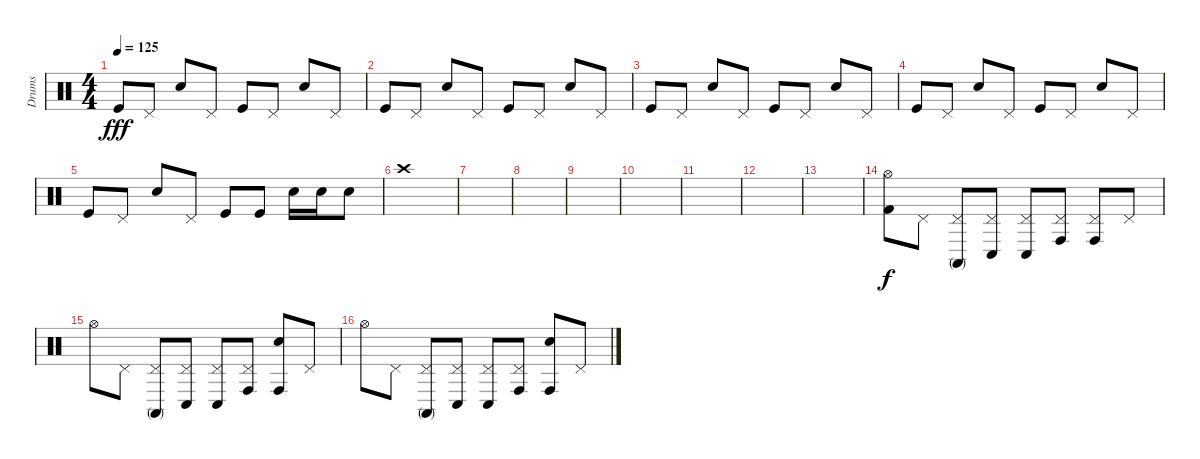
\track ("Drums" "Drums") {instrument percussion}
\staff {score}
\articulation defaults
\ts (4 4)
\tempo 125
\clef neutral
\ks c "Kick (hit)".8{dy fff} "Pedal Hi-Hat (hit)".8 "Electric Snare (hit)".8 "Pedal Hi-Hat (hit)".8 "Kick (hit)".8 "Pedal Hi-Hat (hit)".8 "Electric Snare (hit)".8 "Pedal Hi-Hat (hit)".8
|
"Kick (hit)".8 "Pedal Hi-Hat (hit)".8 "Electric Snare (hit)".8 "Pedal Hi-Hat (hit)".8 "Kick (hit)".8 "Pedal Hi-Hat (hit)".8 "Electric Snare (hit)".8 "Pedal Hi-Hat (hit)".8 |
"Kick (hit)".8 "Pedal Hi-Hat (hit)".8 "Electric Snare (hit)".8 "Pedal Hi-Hat (hit)".8 "Kick (hit)".8 "Pedal Hi-Hat (hit)".8 "Electric Snare (hit)".8 "Pedal Hi-Hat (hit)".8 |
"Kick (hit)".8 "Pedal Hi-Hat (hit)".8 "Electric Snare (hit)".8 "Pedal Hi-Hat (hit)".8 "Kick (hit)".8 "Pedal Hi-Hat (hit)".8 "Electric Snare (hit)".8 "Pedal Hi-Hat (hit)".8 |
"Kick (hit)".8 "Pedal Hi-Hat (hit)".8 "Electric Snare (hit)".8 "Pedal Hi-Hat (hit)".8 "Kick (hit)".8 "Kick (hit)".8 "Electric Snare (hit)".16 "Electric Snare (hit)".16 "Electric Snare (hit)".8 |
"Crash high (hit)".1 |
|
|
|
|
|
|
|
("Hi-Hat (open)" "Kick (hit) 2").8{dy f} "Pedal Hi-Hat (hit)".8 ("Pedal Hi-Hat (hit)" "Conga high (mute)").8 ("Pedal Hi-Hat (hit)" "Conga low (hit)").8 ("Pedal Hi-Hat (hit)" "Conga low (hit)").8 ("Pedal Hi-Hat (hit)" "Conga high (hit)").8 ("Pedal Hi-Hat (hit)" "Conga high (hit)").8 "Pedal Hi-Hat (hit)".8 |
"Hi-Hat (open)".8 "Pedal Hi-Hat (hit)".8 ("Pedal Hi-Hat (hit)" "Conga high (mute)").8 ("Pedal Hi-Hat (hit)" "Conga low (hit)").8 ("Pedal Hi-Hat (hit)" "Conga low (hit)").8 ("Pedal Hi-Hat (hit)" "Conga high (hit)").8 ("Snare (hit) 2" "Conga high (hit)").8 "Pedal Hi-Hat (hit)".8 |
"Hi-Hat (open)".8 "Pedal Hi-Hat (hit)".8 ("Pedal Hi-Hat (hit)" "Conga high (mute)").8 ("Pedal Hi-Hat (hit)" "Conga low (hit)").8 ("Pedal Hi-Hat (hit)" "Conga low (hit)").8 ("Pedal Hi-Hat (hit)" "Conga high (hit)").8 ("Snare (hit) 2" "Conga high (hit)").8 "Pedal Hi-Hat (hit)".8
